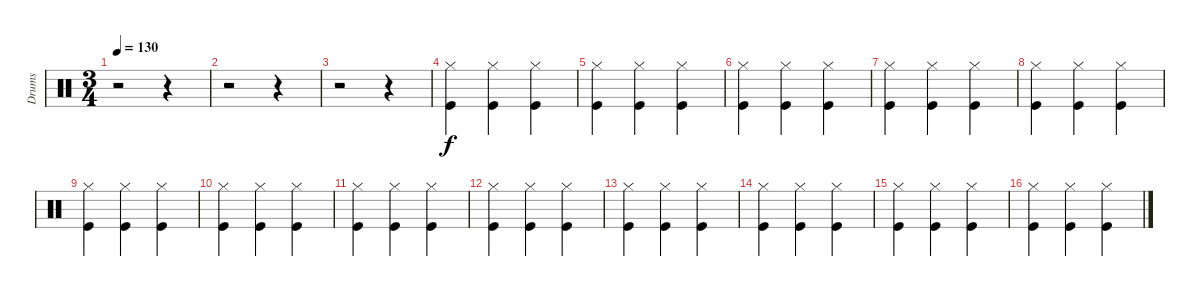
\track ("Drums" "Drums") {instrument percussion}
\staff {score}
\articulation defaults
\ts (3 4)
\tempo 130
\clef neutral
\ks c
r.2{dy f} r.4 |
r.2 r.4 |
r.2 r.4 |
("Hi-Hat (closed)" "Kick (hit)").4 ("Hi-Hat (closed)" "Kick (hit)").4 ("Hi-Hat (closed)" "Kick (hit)").4 |
("Hi-Hat (closed)" "Kick (hit)").4 ("Hi-Hat (closed)" "Kick (hit)").4 ("Hi-Hat (closed)" "Kick (hit)").4 |
("Hi-Hat (closed)" "Kick (hit)").4 ("Hi-Hat (closed)" "Kick (hit)").4 ("Hi-Hat (closed)" "Kick (hit)").4 |
("Hi-Hat (closed)" "Kick (hit)").4 ("Hi-Hat (closed)" "Kick (hit)").4 ("Hi-Hat (closed)" "Kick (hit)").4 |
("Hi-Hat (closed)" "Kick (hit)").4 ("Hi-Hat (closed)" "Kick (hit)").4 ("Hi-Hat (closed)" "Kick (hit)").4 |
("Hi-Hat (closed)" "Kick (hit)").4 ("Hi-Hat (closed)" "Kick (hit)").4 ("Hi-Hat (closed)" "Kick (hit)").4 |
("Hi-Hat (closed)" "Kick (hit)").4 ("Hi-Hat (closed)" "Kick (hit)").4 ("Hi-Hat (closed)" "Kick (hit)").4 |
("Hi-Hat (closed)" "Kick (hit)").4 ("Hi-Hat (closed)" "Kick (hit)").4 ("Hi-Hat (closed)" "Kick (hit)").4 |
("Hi-Hat (closed)" "Kick (hit)").4 ("Hi-Hat (closed)" "Kick (hit)").4 ("Hi-Hat (closed)" "Kick (hit)").4 |
("Hi-Hat (closed)" "Kick (hit)").4 ("Hi-Hat (closed)" "Kick (hit)").4 ("Hi-Hat (closed)" "Kick (hit)").4 |
("Hi-Hat (closed)" "Kick (hit)").4 ("Hi-Hat (closed)" "Kick (hit)").4 ("Hi-Hat (closed)" "Kick (hit)").4 |
("Hi-Hat (closed)" "Kick (hit)").4 ("Hi-Hat (closed)" "Kick (hit)").4 ("Hi-Hat (closed)" "Kick (hit)").4 |
("Hi-Hat (closed)" "Kick (hit)").4 ("Hi-Hat (closed)" "Kick (hit)").4 ("Hi-Hat (closed)" "Kick (hit)").4
